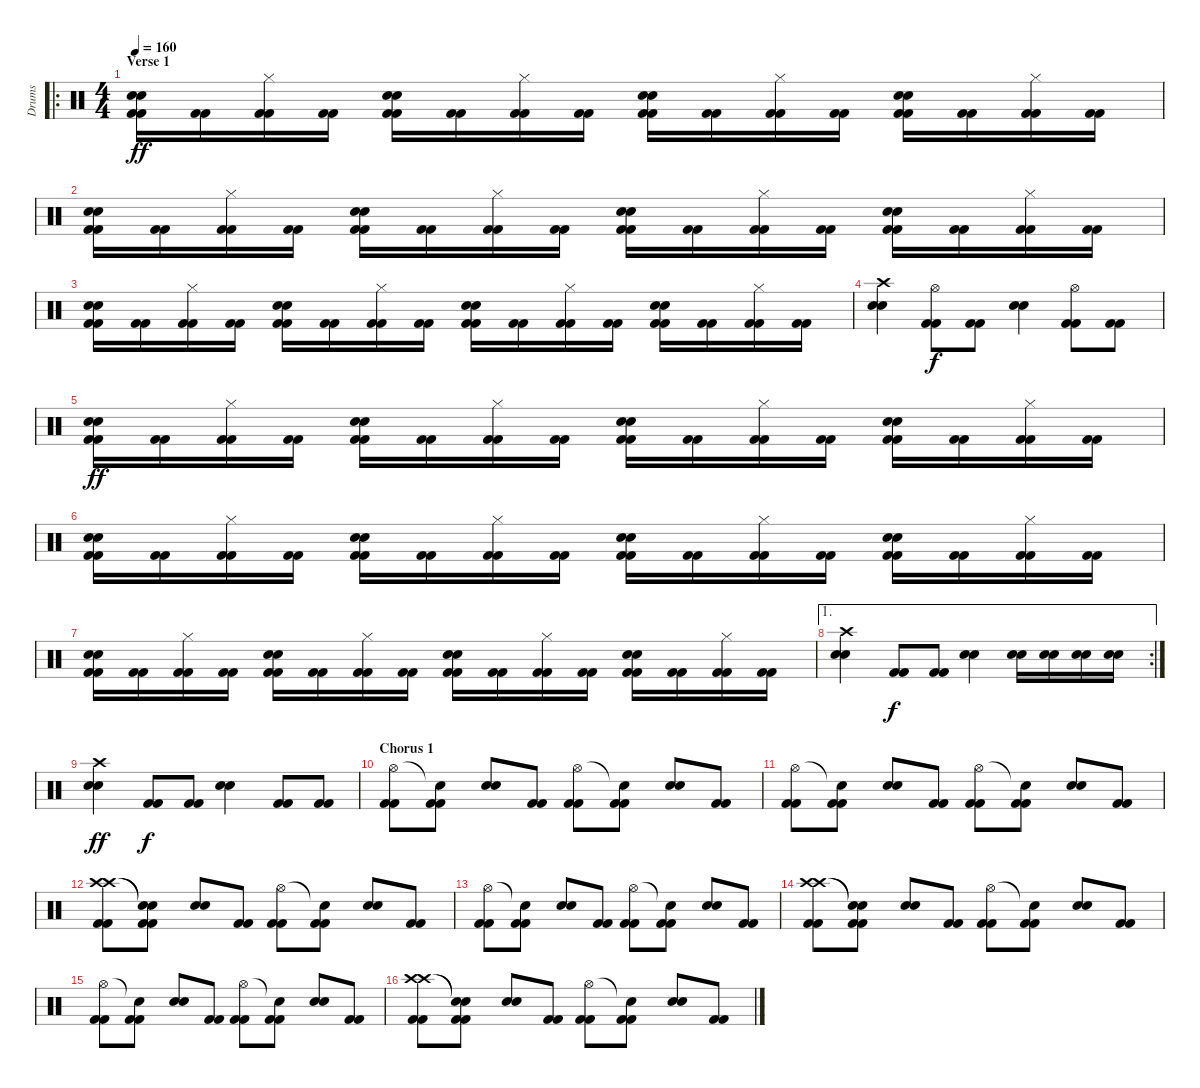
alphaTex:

\track ("Drums" "Drums") {instrument percussion}
\staff {score}
\articulation defaults
\ro
\ts (4 4)
\section ("" "Verse 1")
\tempo 160
\clef neutral
\ks c
("Electric Snare (hit)" "Electric Snare (hit)" "Kick (hit) 2" "Kick (hit) 2").16{dy ff} ("Kick (hit) 2" "Kick (hit) 2").16 ("Hi-Hat (closed)" "Kick (hit) 2" "Kick (hit) 2").16 ("Kick (hit) 2" "Kick (hit) 2").16 ("Electric Snare (hit)" "Electric Snare (hit)" "Kick (hit) 2" "Kick (hit) 2").16 ("Kick (hit) 2" "Kick (hit) 2").16 ("Hi-Hat (closed)" "Kick (hit) 2" "Kick (hit) 2").16 ("Kick (hit) 2" "Kick (hit) 2").16 ("Electric Snare (hit)" "Electric Snare (hit)" "Kick (hit) 2" "Kick (hit) 2").16 ("Kick (hit) 2" "Kick (hit) 2").16 ("Hi-Hat (closed)" "Kick (hit) 2" "Kick (hit) 2").16 ("Kick (hit) 2" "Kick (hit) 2").16 ("Electric Snare (hit)" "Electric Snare (hit)" "Kick (hit) 2" "Kick (hit) 2").16 ("Kick (hit) 2" "Kick (hit) 2").16 ("Hi-Hat (closed)" "Kick (hit) 2" "Kick (hit) 2").16 ("Kick (hit) 2" "Kick (hit) 2").16 |
("Electric Snare (hit)" "Electric Snare (hit)" "Kick (hit) 2" "Kick (hit) 2").16 ("Kick (hit) 2" "Kick (hit) 2").16 ("Hi-Hat (closed)" "Kick (hit) 2" "Kick (hit) 2").16 ("Kick (hit) 2" "Kick (hit) 2").16 ("Electric Snare (hit)" "Electric Snare (hit)" "Kick (hit) 2" "Kick (hit) 2").16 ("Kick (hit) 2" "Kick (hit) 2").16 ("Hi-Hat (closed)" "Kick (hit) 2" "Kick (hit) 2").16 ("Kick (hit) 2" "Kick (hit) 2").16 ("Electric Snare (hit)" "Electric Snare (hit)" "Kick (hit) 2" "Kick (hit) 2").16 ("Kick (hit) 2" "Kick (hit) 2").16 ("Hi-Hat (closed)" "Kick (hit) 2" "Kick (hit) 2").16 ("Kick (hit) 2" "Kick (hit) 2").16 ("Electric Snare (hit)" "Electric Snare (hit)" "Kick (hit) 2" "Kick (hit) 2").16 ("Kick (hit) 2" "Kick (hit) 2").16 ("Hi-Hat (closed)" "Kick (hit) 2" "Kick (hit) 2").16 ("Kick (hit) 2" "Kick (hit) 2").16 |
("Electric Snare (hit)" "Electric Snare (hit)" "Kick (hit) 2" "Kick (hit) 2").16 ("Kick (hit) 2" "Kick (hit) 2").16 ("Hi-Hat (closed)" "Kick (hit) 2" "Kick (hit) 2").16 ("Kick (hit) 2" "Kick (hit) 2").16 ("Electric Snare (hit)" "Electric Snare (hit)" "Kick (hit) 2" "Kick (hit) 2").16 ("Kick (hit) 2" "Kick (hit) 2").16 ("Hi-Hat (closed)" "Kick (hit) 2" "Kick (hit) 2").16 ("Kick (hit) 2" "Kick (hit) 2").16 ("Electric Snare (hit)" "Electric Snare (hit)" "Kick (hit) 2" "Kick (hit) 2").16 ("Kick (hit) 2" "Kick (hit) 2").16 ("Hi-Hat (closed)" "Kick (hit) 2" "Kick (hit) 2").16 ("Kick (hit) 2" "Kick (hit) 2").16 ("Electric Snare (hit)" "Electric Snare (hit)" "Kick (hit) 2" "Kick (hit) 2").16 ("Kick (hit) 2" "Kick (hit) 2").16 ("Hi-Hat (closed)" "Kick (hit) 2" "Kick (hit) 2").16 ("Kick (hit) 2" "Kick (hit) 2").16 |
("Crash high (hit)" "Electric Snare (hit)" "Electric Snare (hit)").4 ("Hi-Hat (open)" "Kick (hit) 2" "Kick (hit) 2").8{dy f} ("Kick (hit) 2" "Kick (hit) 2").8 ("Electric Snare (hit)" "Electric Snare (hit)").4 ("Hi-Hat (open)" "Kick (hit) 2" "Kick (hit) 2").8 ("Kick (hit) 2" "Kick (hit) 2").8 |
("Electric Snare (hit)" "Electric Snare (hit)" "Kick (hit) 2" "Kick (hit) 2").16{dy ff} ("Kick (hit) 2" "Kick (hit) 2").16 ("Hi-Hat (closed)" "Kick (hit) 2" "Kick (hit) 2").16 ("Kick (hit) 2" "Kick (hit) 2").16 ("Electric Snare (hit)" "Electric Snare (hit)" "Kick (hit) 2" "Kick (hit) 2").16 ("Kick (hit) 2" "Kick (hit) 2").16 ("Hi-Hat (closed)" "Kick (hit) 2" "Kick (hit) 2").16 ("Kick (hit) 2" "Kick (hit) 2").16 ("Electric Snare (hit)" "Electric Snare (hit)" "Kick (hit) 2" "Kick (hit) 2").16 ("Kick (hit) 2" "Kick (hit) 2").16 ("Hi-Hat (closed)" "Kick (hit) 2" "Kick (hit) 2").16 ("Kick (hit) 2" "Kick (hit) 2").16 ("Electric Snare (hit)" "Electric Snare (hit)" "Kick (hit) 2" "Kick (hit) 2").16 ("Kick (hit) 2" "Kick (hit) 2").16 ("Hi-Hat (closed)" "Kick (hit) 2" "Kick (hit) 2").16 ("Kick (hit) 2" "Kick (hit) 2").16 |
("Electric Snare (hit)" "Electric Snare (hit)" "Kick (hit) 2" "Kick (hit) 2").16 ("Kick (hit) 2" "Kick (hit) 2").16 ("Hi-Hat (closed)" "Kick (hit) 2" "Kick (hit) 2").16 ("Kick (hit) 2" "Kick (hit) 2").16 ("Electric Snare (hit)" "Electric Snare (hit)" "Kick (hit) 2" "Kick (hit) 2").16 ("Kick (hit) 2" "Kick (hit) 2").16 ("Hi-Hat (closed)" "Kick (hit) 2" "Kick (hit) 2").16 ("Kick (hit) 2" "Kick (hit) 2").16 ("Electric Snare (hit)" "Electric Snare (hit)" "Kick (hit) 2" "Kick (hit) 2").16 ("Kick (hit) 2" "Kick (hit) 2").16 ("Hi-Hat (closed)" "Kick (hit) 2" "Kick (hit) 2").16 ("Kick (hit) 2" "Kick (hit) 2").16 ("Electric Snare (hit)" "Electric Snare (hit)" "Kick (hit) 2" "Kick (hit) 2").16 ("Kick (hit) 2" "Kick (hit) 2").16 ("Hi-Hat (closed)" "Kick (hit) 2" "Kick (hit) 2").16 ("Kick (hit) 2" "Kick (hit) 2").16 |
("Electric Snare (hit)" "Electric Snare (hit)" "Kick (hit) 2" "Kick (hit) 2").16 ("Kick (hit) 2" "Kick (hit) 2").16 ("Hi-Hat (closed)" "Kick (hit) 2" "Kick (hit) 2").16 ("Kick (hit) 2" "Kick (hit) 2").16 ("Electric Snare (hit)" "Electric Snare (hit)" "Kick (hit) 2" "Kick (hit) 2").16 ("Kick (hit) 2" "Kick (hit) 2").16 ("Hi-Hat (closed)" "Kick (hit) 2" "Kick (hit) 2").16 ("Kick (hit) 2" "Kick (hit) 2").16 ("Electric Snare (hit)" "Electric Snare (hit)" "Kick (hit) 2" "Kick (hit) 2").16 ("Kick (hit) 2" "Kick (hit) 2").16 ("Hi-Hat (closed)" "Kick (hit) 2" "Kick (hit) 2").16 ("Kick (hit) 2" "Kick (hit) 2").16 ("Electric Snare (hit)" "Electric Snare (hit)" "Kick (hit) 2" "Kick (hit) 2").16 ("Kick (hit) 2" "Kick (hit) 2").16 ("Hi-Hat (closed)" "Kick (hit) 2" "Kick (hit) 2").16 ("Kick (hit) 2" "Kick (hit) 2").16 |
\ae 1
\rc 2
("Crash high (hit)" "Electric Snare (hit)" "Electric Snare (hit)").4 ("Kick (hit) 2" "Kick (hit) 2").8{dy f} ("Kick (hit) 2" "Kick (hit) 2").8 ("Electric Snare (hit)" "Electric Snare (hit)").4 ("Snare (hit) 2" "Snare (hit) 2").16 ("Snare (hit) 2" "Snare (hit) 2").16 ("Snare (hit) 2" "Snare (hit) 2").16 ("Snare (hit) 2" "Snare (hit) 2").16 |
("Crash high (hit)" "Electric Snare (hit)" "Electric Snare (hit)").4{dy ff} ("Kick (hit) 2" "Kick (hit) 2").8{dy f} ("Kick (hit) 2" "Kick (hit) 2").8 ("Electric Snare (hit)" "Electric Snare (hit)").4 ("Kick (hit) 2" "Kick (hit) 2").8 ("Kick (hit) 2" "Kick (hit) 2").8 |
\section ("" "Chorus 1")
("Hi-Hat (open)" "Kick (hit) 2" "Kick (hit) 2").8 ("Snare (hit)"{t} "Kick (hit) 2" "Kick (hit) 2").8 ("Electric Snare (hit)" "Electric Snare (hit)").8 ("Kick (hit) 2" "Kick (hit) 2").8 ("Hi-Hat (open)" "Kick (hit) 2" "Kick (hit) 2").8 ("Snare (hit)"{t} "Kick (hit) 2" "Kick (hit) 2").8 ("Electric Snare (hit)" "Electric Snare (hit)").8 ("Kick (hit) 2" "Kick (hit) 2").8 |
("Hi-Hat (open)" "Kick (hit) 2" "Kick (hit) 2").8 ("Snare (hit)"{t} "Kick (hit) 2" "Kick (hit) 2").8 ("Electric Snare (hit)" "Electric Snare (hit)").8 ("Kick (hit) 2" "Kick (hit) 2").8 ("Hi-Hat (open)" "Kick (hit) 2" "Kick (hit) 2").8 ("Snare (hit)"{t} "Kick (hit) 2" "Kick (hit) 2").8 ("Electric Snare (hit)" "Electric Snare (hit)").8 ("Kick (hit) 2" "Kick (hit) 2").8 |
("Crash high (hit)" "Crash high (hit)" "Kick (hit) 2" "Kick (hit) 2").8 ("Snare (hit)"{t} "Snare (hit)"{t} "Kick (hit) 2" "Kick (hit) 2").8 ("Electric Snare (hit)" "Electric Snare (hit)").8 ("Kick (hit) 2" "Kick (hit) 2").8 ("Hi-Hat (open)" "Kick (hit) 2" "Kick (hit) 2").8 ("Snare (hit)"{t} "Kick (hit) 2" "Kick (hit) 2").8 ("Electric Snare (hit)" "Electric Snare (hit)").8 ("Kick (hit) 2" "Kick (hit) 2").8 |
("Hi-Hat (open)" "Kick (hit) 2" "Kick (hit) 2").8 ("Snare (hit)"{t} "Kick (hit) 2" "Kick (hit) 2").8 ("Electric Snare (hit)" "Electric Snare (hit)").8 ("Kick (hit) 2" "Kick (hit) 2").8 ("Hi-Hat (open)" "Kick (hit) 2" "Kick (hit) 2").8 ("Snare (hit)"{t} "Kick (hit) 2" "Kick (hit) 2").8 ("Electric Snare (hit)" "Electric Snare (hit)").8 ("Kick (hit) 2" "Kick (hit) 2").8 |
("Crash high (hit)" "Crash high (hit)" "Kick (hit) 2" "Kick (hit) 2").8 ("Snare (hit)"{t} "Snare (hit)"{t} "Kick (hit) 2" "Kick (hit) 2").8 ("Electric Snare (hit)" "Electric Snare (hit)").8 ("Kick (hit) 2" "Kick (hit) 2").8 ("Hi-Hat (open)" "Kick (hit) 2" "Kick (hit) 2").8 ("Snare (hit)"{t} "Kick (hit) 2" "Kick (hit) 2").8 ("Electric Snare (hit)" "Electric Snare (hit)").8 ("Kick (hit) 2" "Kick (hit) 2").8 |
("Hi-Hat (open)" "Kick (hit) 2" "Kick (hit) 2").8 ("Snare (hit)"{t} "Kick (hit) 2" "Kick (hit) 2").8 ("Electric Snare (hit)" "Electric Snare (hit)").8 ("Kick (hit) 2" "Kick (hit) 2").8 ("Hi-Hat (open)" "Kick (hit) 2" "Kick (hit) 2").8 ("Snare (hit)"{t} "Kick (hit) 2" "Kick (hit) 2").8 ("Electric Snare (hit)" "Electric Snare (hit)").8 ("Kick (hit) 2" "Kick (hit) 2").8 |
("Crash high (hit)" "Crash high (hit)" "Kick (hit) 2" "Kick (hit) 2").8 ("Snare (hit)"{t} "Snare (hit)"{t} "Kick (hit) 2" "Kick (hit) 2").8 ("Electric Snare (hit)" "Electric Snare (hit)").8 ("Kick (hit) 2" "Kick (hit) 2").8 ("Hi-Hat (open)" "Kick (hit) 2" "Kick (hit) 2").8 ("Snare (hit)"{t} "Kick (hit) 2" "Kick (hit) 2").8 ("Electric Snare (hit)" "Electric Snare (hit)").8 ("Kick (hit) 2" "Kick (hit) 2").8
